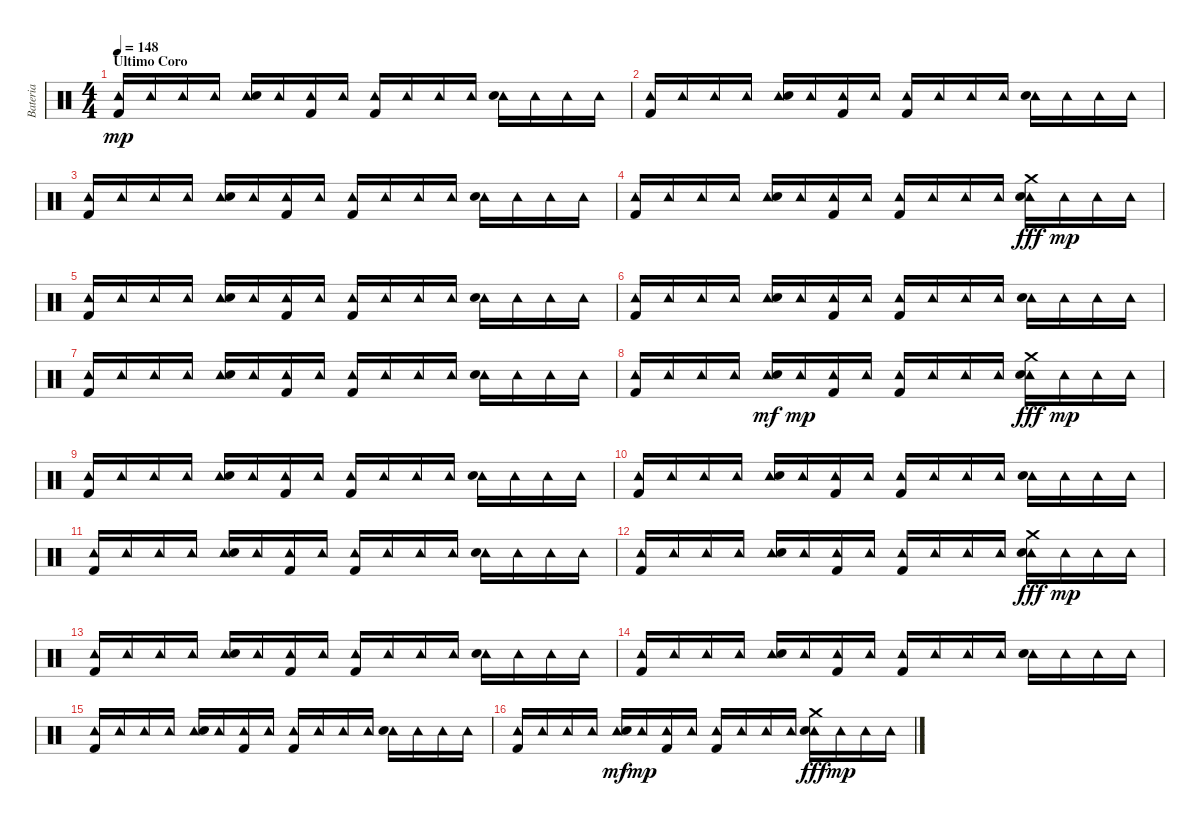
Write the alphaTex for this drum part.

\track ("Bateria" "Bateria") {instrument percussion}
\staff {score}
\articulation defaults
\ts (4 4)
\section ("" "Ultimo Coro")
\tempo 148
\clef neutral
\ks c
("Tambourine (hit)" "Kick (hit) 2").16{dy mp} "Tambourine (hit)".16 "Tambourine (hit)".16 "Tambourine (hit)".16 ("Tambourine (hit)" "Snare (hit) 2").16 "Tambourine (hit)".16 ("Tambourine (hit)" "Kick (hit) 2").16 "Tambourine (hit)".16 ("Tambourine (hit)" "Kick (hit) 2").16 "Tambourine (hit)".16 "Tambourine (hit)".16 "Tambourine (hit)".16 ("Tambourine (hit)" "Snare (hit) 2").16 "Tambourine (hit)".16 "Tambourine (hit)".16 "Tambourine (hit)".16 |
("Tambourine (hit)" "Kick (hit) 2").16 "Tambourine (hit)".16 "Tambourine (hit)".16 "Tambourine (hit)".16 ("Tambourine (hit)" "Snare (hit) 2").16 "Tambourine (hit)".16 ("Tambourine (hit)" "Kick (hit) 2").16 "Tambourine (hit)".16 ("Tambourine (hit)" "Kick (hit) 2").16 "Tambourine (hit)".16 "Tambourine (hit)".16 "Tambourine (hit)".16 ("Tambourine (hit)" "Snare (hit) 2").16 "Tambourine (hit)".16 "Tambourine (hit)".16 "Tambourine (hit)".16 |
("Tambourine (hit)" "Kick (hit) 2").16 "Tambourine (hit)".16 "Tambourine (hit)".16 "Tambourine (hit)".16 ("Tambourine (hit)" "Snare (hit) 2").16 "Tambourine (hit)".16 ("Tambourine (hit)" "Kick (hit) 2").16 "Tambourine (hit)".16 ("Tambourine (hit)" "Kick (hit) 2").16 "Tambourine (hit)".16 "Tambourine (hit)".16 "Tambourine (hit)".16 ("Tambourine (hit)" "Snare (hit) 2").16 "Tambourine (hit)".16 "Tambourine (hit)".16 "Tambourine (hit)".16 |
("Tambourine (hit)" "Kick (hit) 2").16 "Tambourine (hit)".16 "Tambourine (hit)".16 "Tambourine (hit)".16 ("Tambourine (hit)" "Snare (hit) 2").16 "Tambourine (hit)".16 ("Tambourine (hit)" "Kick (hit) 2").16 "Tambourine (hit)".16 ("Tambourine (hit)" "Kick (hit) 2").16 "Tambourine (hit)".16 "Tambourine (hit)".16 "Tambourine (hit)".16 ("Tambourine (hit)" "Crash medium (hit)" "Snare (hit) 2").16{dy fff} "Tambourine (hit)".16{dy mp} "Tambourine (hit)".16 "Tambourine (hit)".16 |
("Tambourine (hit)" "Kick (hit) 2").16 "Tambourine (hit)".16 "Tambourine (hit)".16 "Tambourine (hit)".16 ("Tambourine (hit)" "Snare (hit) 2").16 "Tambourine (hit)".16 ("Tambourine (hit)" "Kick (hit) 2").16 "Tambourine (hit)".16 ("Tambourine (hit)" "Kick (hit) 2").16 "Tambourine (hit)".16 "Tambourine (hit)".16 "Tambourine (hit)".16 ("Tambourine (hit)" "Snare (hit) 2").16 "Tambourine (hit)".16 "Tambourine (hit)".16 "Tambourine (hit)".16 |
("Tambourine (hit)" "Kick (hit) 2").16 "Tambourine (hit)".16 "Tambourine (hit)".16 "Tambourine (hit)".16 ("Tambourine (hit)" "Snare (hit) 2").16 "Tambourine (hit)".16 ("Tambourine (hit)" "Kick (hit) 2").16 "Tambourine (hit)".16 ("Tambourine (hit)" "Kick (hit) 2").16 "Tambourine (hit)".16 "Tambourine (hit)".16 "Tambourine (hit)".16 ("Tambourine (hit)" "Snare (hit) 2").16 "Tambourine (hit)".16 "Tambourine (hit)".16 "Tambourine (hit)".16 |
("Tambourine (hit)" "Kick (hit) 2").16 "Tambourine (hit)".16 "Tambourine (hit)".16 "Tambourine (hit)".16 ("Tambourine (hit)" "Snare (hit) 2").16 "Tambourine (hit)".16 ("Tambourine (hit)" "Kick (hit) 2").16 "Tambourine (hit)".16 ("Tambourine (hit)" "Kick (hit) 2").16 "Tambourine (hit)".16 "Tambourine (hit)".16 "Tambourine (hit)".16 ("Tambourine (hit)" "Snare (hit) 2").16 "Tambourine (hit)".16 "Tambourine (hit)".16 "Tambourine (hit)".16 |
("Tambourine (hit)" "Kick (hit) 2").16 "Tambourine (hit)".16 "Tambourine (hit)".16 "Tambourine (hit)".16 ("Tambourine (hit)" "Snare (hit) 2").16{dy mf} "Tambourine (hit)".16{dy mp} ("Tambourine (hit)" "Kick (hit) 2").16 "Tambourine (hit)".16 ("Tambourine (hit)" "Kick (hit) 2").16 "Tambourine (hit)".16 "Tambourine (hit)".16 "Tambourine (hit)".16 ("Tambourine (hit)" "Crash medium (hit)" "Snare (hit) 2").16{dy fff} "Tambourine (hit)".16{dy mp} "Tambourine (hit)".16 "Tambourine (hit)".16 |
("Tambourine (hit)" "Kick (hit) 2").16 "Tambourine (hit)".16 "Tambourine (hit)".16 "Tambourine (hit)".16 ("Tambourine (hit)" "Snare (hit) 2").16 "Tambourine (hit)".16 ("Tambourine (hit)" "Kick (hit) 2").16 "Tambourine (hit)".16 ("Tambourine (hit)" "Kick (hit) 2").16 "Tambourine (hit)".16 "Tambourine (hit)".16 "Tambourine (hit)".16 ("Tambourine (hit)" "Snare (hit) 2").16 "Tambourine (hit)".16 "Tambourine (hit)".16 "Tambourine (hit)".16 |
("Tambourine (hit)" "Kick (hit) 2").16 "Tambourine (hit)".16 "Tambourine (hit)".16 "Tambourine (hit)".16 ("Tambourine (hit)" "Snare (hit) 2").16 "Tambourine (hit)".16 ("Tambourine (hit)" "Kick (hit) 2").16 "Tambourine (hit)".16 ("Tambourine (hit)" "Kick (hit) 2").16 "Tambourine (hit)".16 "Tambourine (hit)".16 "Tambourine (hit)".16 ("Tambourine (hit)" "Snare (hit) 2").16 "Tambourine (hit)".16 "Tambourine (hit)".16 "Tambourine (hit)".16 |
("Tambourine (hit)" "Kick (hit) 2").16 "Tambourine (hit)".16 "Tambourine (hit)".16 "Tambourine (hit)".16 ("Tambourine (hit)" "Snare (hit) 2").16 "Tambourine (hit)".16 ("Tambourine (hit)" "Kick (hit) 2").16 "Tambourine (hit)".16 ("Tambourine (hit)" "Kick (hit) 2").16 "Tambourine (hit)".16 "Tambourine (hit)".16 "Tambourine (hit)".16 ("Tambourine (hit)" "Snare (hit) 2").16 "Tambourine (hit)".16 "Tambourine (hit)".16 "Tambourine (hit)".16 |
("Tambourine (hit)" "Kick (hit) 2").16 "Tambourine (hit)".16 "Tambourine (hit)".16 "Tambourine (hit)".16 ("Tambourine (hit)" "Snare (hit) 2").16 "Tambourine (hit)".16 ("Tambourine (hit)" "Kick (hit) 2").16 "Tambourine (hit)".16 ("Tambourine (hit)" "Kick (hit) 2").16 "Tambourine (hit)".16 "Tambourine (hit)".16 "Tambourine (hit)".16 ("Tambourine (hit)" "Crash medium (hit)" "Snare (hit) 2").16{dy fff} "Tambourine (hit)".16{dy mp} "Tambourine (hit)".16 "Tambourine (hit)".16 |
("Tambourine (hit)" "Kick (hit) 2").16 "Tambourine (hit)".16 "Tambourine (hit)".16 "Tambourine (hit)".16 ("Tambourine (hit)" "Snare (hit) 2").16 "Tambourine (hit)".16 ("Tambourine (hit)" "Kick (hit) 2").16 "Tambourine (hit)".16 ("Tambourine (hit)" "Kick (hit) 2").16 "Tambourine (hit)".16 "Tambourine (hit)".16 "Tambourine (hit)".16 ("Tambourine (hit)" "Snare (hit) 2").16 "Tambourine (hit)".16 "Tambourine (hit)".16 "Tambourine (hit)".16 |
("Tambourine (hit)" "Kick (hit) 2").16 "Tambourine (hit)".16 "Tambourine (hit)".16 "Tambourine (hit)".16 ("Tambourine (hit)" "Snare (hit) 2").16 "Tambourine (hit)".16 ("Tambourine (hit)" "Kick (hit) 2").16 "Tambourine (hit)".16 ("Tambourine (hit)" "Kick (hit) 2").16 "Tambourine (hit)".16 "Tambourine (hit)".16 "Tambourine (hit)".16 ("Tambourine (hit)" "Snare (hit) 2").16 "Tambourine (hit)".16 "Tambourine (hit)".16 "Tambourine (hit)".16 |
("Tambourine (hit)" "Kick (hit) 2").16 "Tambourine (hit)".16 "Tambourine (hit)".16 "Tambourine (hit)".16 ("Tambourine (hit)" "Snare (hit) 2").16 "Tambourine (hit)".16 ("Tambourine (hit)" "Kick (hit) 2").16 "Tambourine (hit)".16 ("Tambourine (hit)" "Kick (hit) 2").16 "Tambourine (hit)".16 "Tambourine (hit)".16 "Tambourine (hit)".16 ("Tambourine (hit)" "Snare (hit) 2").16 "Tambourine (hit)".16 "Tambourine (hit)".16 "Tambourine (hit)".16 |
("Tambourine (hit)" "Kick (hit) 2").16 "Tambourine (hit)".16 "Tambourine (hit)".16 "Tambourine (hit)".16 ("Tambourine (hit)" "Snare (hit) 2").16{dy mf} "Tambourine (hit)".16{dy mp} ("Tambourine (hit)" "Kick (hit) 2").16 "Tambourine (hit)".16 ("Tambourine (hit)" "Kick (hit) 2").16 "Tambourine (hit)".16 "Tambourine (hit)".16 "Tambourine (hit)".16 ("Tambourine (hit)" "Crash medium (hit)" "Snare (hit) 2").16{dy fff} "Tambourine (hit)".16{dy mp} "Tambourine (hit)".16 "Tambourine (hit)".16
